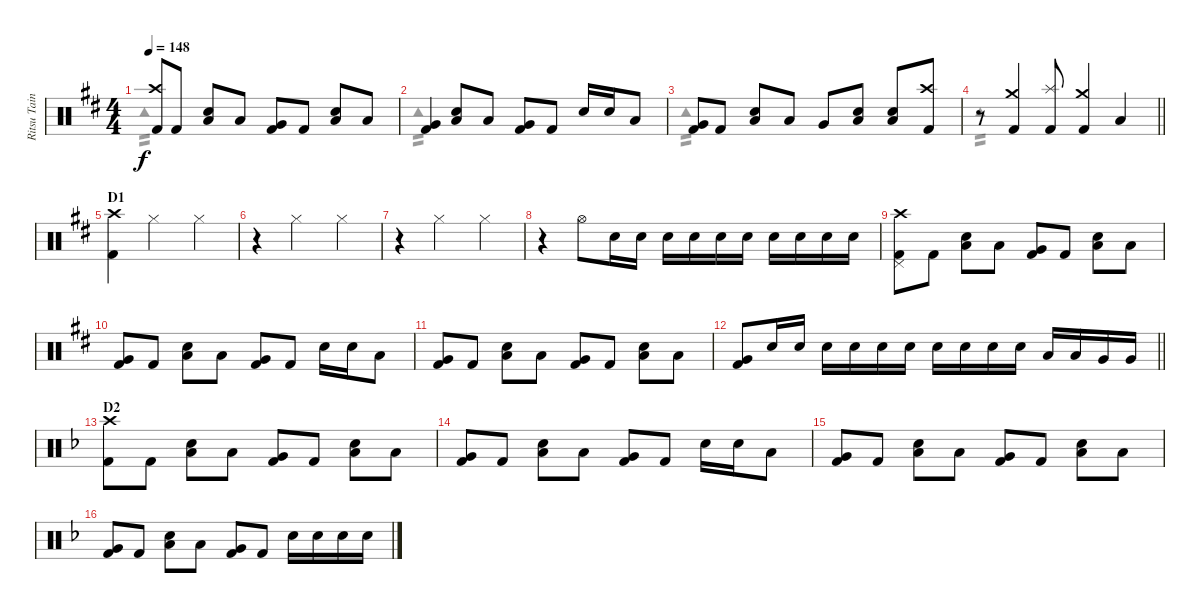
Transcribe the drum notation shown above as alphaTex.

\track ("Ritsu Tainaka" "Ritsu Tain") {instrument percussion}
\staff {score}
\articulation defaults
\voice
\ts (4 4)
\tempo 148
\clef neutral
\ks d
("Crash high (hit)" "Kick (hit) 2").8{dy f} "Kick (hit) 2".8 ("Snare (hit) 2" "Low Floor Tom (hit)").8 "Low Tom (hit)".8 ("Very Low Tom (hit)" "Kick (hit) 2").8 "Kick (hit) 2".8 ("Snare (hit) 2" "Low Floor Tom (hit)").8 "Low Tom (hit)".8 |
("Very Low Tom (hit)" "Kick (hit) 2").4 ("Snare (hit) 2" "Low Floor Tom (hit)").8 "Low Tom (hit)".8 ("Very Low Tom (hit)" "Kick (hit) 2").8 "Kick (hit) 2".8 "Snare (hit) 2".16 "Snare (hit) 2".16 "Low Tom (hit)".8 |
("Very Low Tom (hit)" "Kick (hit) 2").8 "Kick (hit) 2".8 ("Snare (hit) 2" "Low Floor Tom (hit)").8 "Low Tom (hit)".8 "Very Low Tom (hit)".8 ("Snare (hit) 2" "Low Floor Tom (hit)").8 ("Snare (hit) 2" "Low Floor Tom (hit)").8 ("Crash high (hit)" "Kick (hit) 2").8 |
\barLineRight lightlight
r.8 ("Crash medium (hit)" "Kick (hit) 2").4 ("Splash (hit)" "Kick (hit) 2").8 ("Crash medium (hit)" "Kick (hit) 2").4 "Low Floor Tom (hit)".4 |
\section ("" "D1")
("Crash high (hit)" "Kick (hit) 2").4 "Hi-Hat (closed)".2 "Hi-Hat (closed)".4 |
r.4 "Hi-Hat (closed)".2 "Hi-Hat (closed)".4 |
r.4 "Hi-Hat (closed)".2 "Hi-Hat (closed)".4 |
r.4 "Hi-Hat (open)".8 "Snare (hit) 2".16 "Snare (hit) 2".16 "Snare (hit) 2".16 "Snare (hit) 2".16 "Snare (hit) 2".16 "Snare (hit) 2".16 "Snare (hit) 2".16 "Snare (hit) 2".16 "Snare (hit) 2".16 "Snare (hit) 2".16 |
("Crash high (hit)" "Pedal Hi-Hat (hit)" "Kick (hit) 2").8 "Kick (hit) 2".8 ("Snare (hit) 2" "Low Floor Tom (hit)").8 "Low Tom (hit)".8 ("Very Low Tom (hit)" "Kick (hit) 2").8 "Kick (hit) 2".8 ("Snare (hit) 2" "Low Floor Tom (hit)").8 "Low Tom (hit)".8 |
("Very Low Tom (hit)" "Kick (hit) 2").8 "Kick (hit) 2".8 ("Snare (hit) 2" "Low Floor Tom (hit)").8 "Low Tom (hit)".8 ("Very Low Tom (hit)" "Kick (hit) 2").8 "Kick (hit) 2".8 "Snare (hit) 2".16 "Snare (hit) 2".16 "Low Tom (hit)".8 |
("Very Low Tom (hit)" "Kick (hit) 2").8 "Kick (hit) 2".8 ("Snare (hit) 2" "Low Floor Tom (hit)").8 "Low Tom (hit)".8 ("Very Low Tom (hit)" "Kick (hit) 2").8 "Kick (hit) 2".8 ("Snare (hit) 2" "Low Floor Tom (hit)").8 "Low Tom (hit)".8 |
\barLineRight lightlight
("Very Low Tom (hit)" "Kick (hit) 2").8 "Snare (hit) 2".16 "Snare (hit) 2".16 "Snare (hit) 2".16 "Snare (hit) 2".16 "Snare (hit) 2".16 "Snare (hit) 2".16 "Snare (hit) 2".16 "Snare (hit) 2".16 "Snare (hit) 2".16 "Snare (hit) 2".16 "Low Tom (hit)".16 "Low Tom (hit)".16 "Very Low Tom (hit)".16 "Very Low Tom (hit)".16 |
\section ("" "D2")
\ks f
("Crash high (hit)" "Kick (hit) 2").8 "Kick (hit) 2".8 ("Snare (hit) 2" "Low Floor Tom (hit)").8 "Low Tom (hit)".8 ("Very Low Tom (hit)" "Kick (hit) 2").8 "Kick (hit) 2".8 ("Snare (hit) 2" "Low Floor Tom (hit)").8 "Low Tom (hit)".8 |
("Very Low Tom (hit)" "Kick (hit) 2").8 "Kick (hit) 2".8 ("Snare (hit) 2" "Low Floor Tom (hit)").8 "Low Tom (hit)".8 ("Very Low Tom (hit)" "Kick (hit) 2").8 "Kick (hit) 2".8 "Snare (hit) 2".16 "Snare (hit) 2".16 "Low Tom (hit)".8 |
("Very Low Tom (hit)" "Kick (hit) 2").8 "Kick (hit) 2".8 ("Snare (hit) 2" "Low Floor Tom (hit)").8 "Low Tom (hit)".8 ("Very Low Tom (hit)" "Kick (hit) 2").8 "Kick (hit) 2".8 ("Snare (hit) 2" "Low Floor Tom (hit)").8 "Low Tom (hit)".8 |
("Very Low Tom (hit)" "Kick (hit) 2").8 "Kick (hit) 2".8 ("Snare (hit) 2" "Low Floor Tom (hit)").8 "Low Tom (hit)".8 ("Very Low Tom (hit)" "Kick (hit) 2").8 "Kick (hit) 2".8 "Snare (hit) 2".16 "Snare (hit) 2".16 "Snare (hit) 2".16 "Snare (hit) 2".16
\voice
\clef neutral
\ottava regular
\simile none
\ks d "Tambourine (hit)".1{tp 2 dy f}
|
"Tambourine (hit)".1{tp 2} |
"Tambourine (hit)".1{tp 2} |
\barLineRight lightlight "Tambourine (hit)".1{tp 2}
|
|
|
|
|
|
|
|
\barLineRight lightlight
|
\ks f
|
|
|
